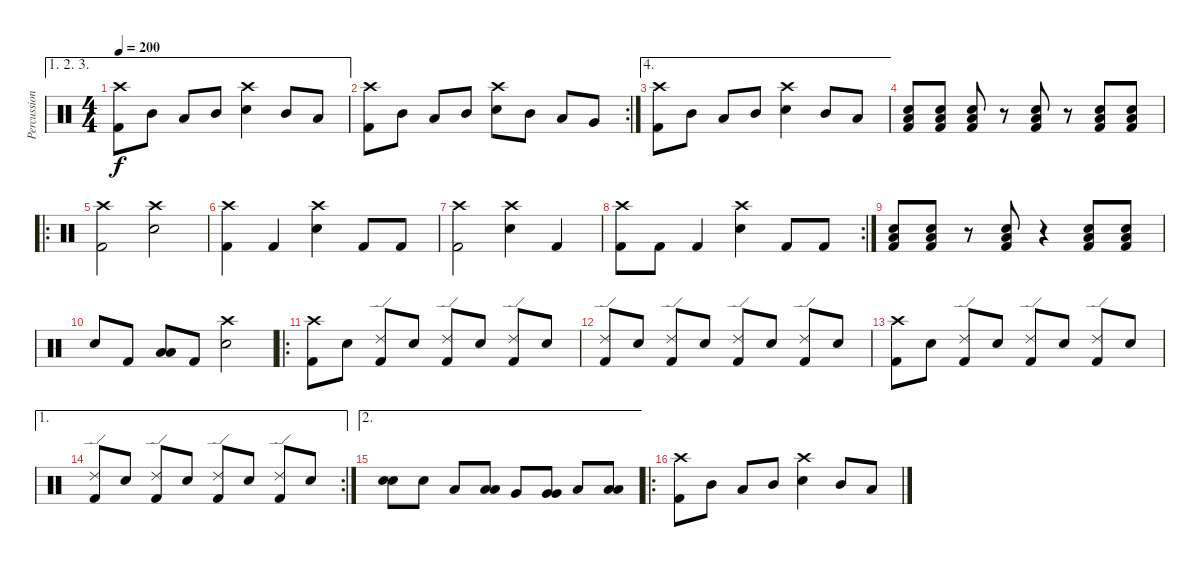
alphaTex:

\track ("Percussions" "Percussion") {instrument percussion}
\staff {score}
\articulation defaults
\ae (1 2 3)
\ts (4 4)
\tempo 200
\clef neutral
\ks c
("Crash high (hit)" "Kick (hit) 2").8{dy f} "Mid Tom (hit)".8 "Low Tom (hit)".8 "Mid Tom (hit)".8 ("Crash high (hit)" "Snare (hit) 2").4 "Mid Tom (hit)".8 "Low Tom (hit)".8 |
\rc 2
("Crash high (hit)" "Kick (hit) 2").8 "Mid Tom (hit)".8 "Low Tom (hit)".8 "Mid Tom (hit)".8 ("Crash high (hit)" "Snare (hit) 2").8 "Mid Tom (hit)".8 "Low Tom (hit)".8 "Very Low Tom (hit)".8 |
\ae 4
("Crash high (hit)" "Kick (hit) 2").8 "Mid Tom (hit)".8 "Low Tom (hit)".8 "Mid Tom (hit)".8 ("Crash high (hit)" "Snare (hit) 2").4 "Mid Tom (hit)".8 "Low Tom (hit)".8 |
("Low Floor Tom (hit)" "Snare (hit) 2" "Kick (hit) 2").8 ("Low Floor Tom (hit)" "Snare (hit) 2" "Kick (hit) 2").8 ("Low Floor Tom (hit)" "Snare (hit) 2" "Kick (hit) 2").8 r.8 ("Low Floor Tom (hit)" "Snare (hit) 2" "Kick (hit) 2").8 r.8 ("Low Floor Tom (hit)" "Snare (hit) 2" "Kick (hit) 2").8 ("Low Floor Tom (hit)" "Snare (hit) 2" "Kick (hit) 2").8 |
\ro
("Crash high (hit)" "Kick (hit) 2").2 ("Crash high (hit)" "Snare (hit) 2").2 |
("Crash high (hit)" "Kick (hit) 2").4 "Kick (hit) 2".4 ("Crash high (hit)" "Snare (hit) 2").4 "Kick (hit) 2".8 "Kick (hit) 2".8 |
("Crash high (hit)" "Kick (hit) 2").2 ("Crash high (hit)" "Snare (hit) 2").4 "Kick (hit) 2".4 |
\rc 2
("Crash high (hit)" "Kick (hit) 2").8 "Kick (hit) 2".8 "Kick (hit) 2".4 ("Crash high (hit)" "Snare (hit) 2").4 "Kick (hit) 2".8 "Kick (hit) 2".8 |
("Low Floor Tom (hit)" "Snare (hit) 2" "Kick (hit) 2").8 ("Low Floor Tom (hit)" "Snare (hit) 2" "Kick (hit) 2").8 r.8 ("Low Floor Tom (hit)" "Snare (hit) 2" "Kick (hit) 2").8 r.4 ("Low Floor Tom (hit)" "Snare (hit) 2" "Kick (hit) 2").8 ("Low Floor Tom (hit)" "Snare (hit) 2" "Kick (hit) 2").8 |
"Snare (hit) 2".8 "Kick (hit) 2".8 ("Low Tom (hit)" "Low Tom (hit)").8{bd 240} "Kick (hit) 2".8 ("Crash high (hit)" "Snare (hit) 2").2 |
\ro
("Crash high (hit)" "Kick (hit) 2").8 "Snare (hit) 2".8 ("Ride (edge) 2" "Kick (hit) 2").8 "Snare (hit) 2".8 ("Ride (edge) 2" "Kick (hit) 2").8 "Snare (hit) 2".8 ("Ride (edge) 2" "Kick (hit) 2").8 "Snare (hit) 2".8 |
("Ride (edge) 2" "Kick (hit) 2").8 "Snare (hit) 2".8 ("Ride (edge) 2" "Kick (hit) 2").8 "Snare (hit) 2".8 ("Ride (edge) 2" "Kick (hit) 2").8 "Snare (hit) 2".8 ("Ride (edge) 2" "Kick (hit) 2").8 "Snare (hit) 2".8 |
("Crash high (hit)" "Kick (hit) 2").8 "Snare (hit) 2".8 ("Ride (edge) 2" "Kick (hit) 2").8 "Snare (hit) 2".8 ("Ride (edge) 2" "Kick (hit) 2").8 "Snare (hit) 2".8 ("Ride (edge) 2" "Kick (hit) 2").8 "Snare (hit) 2".8 |
\ae 1
\rc 2
("Ride (edge) 2" "Kick (hit) 2").8 "Snare (hit) 2".8 ("Ride (edge) 2" "Kick (hit) 2").8 "Snare (hit) 2".8 ("Ride (edge) 2" "Kick (hit) 2").8 "Snare (hit) 2".8 ("Ride (edge) 2" "Kick (hit) 2").8 "Snare (hit) 2".8 |
\ae 2
("Snare (hit) 2" "Snare (hit) 2").8{bd 240} "Snare (hit) 2".8 "Low Tom (hit)".8 ("Low Tom (hit)" "Low Tom (hit)").8{bd 240} "Very Low Tom (hit)".8 ("Very Low Tom (hit)" "Very Low Tom (hit)").8{bd 240} "Low Floor Tom (hit)".8 ("Low Floor Tom (hit)" "Low Floor Tom (hit)").8{bd 240} |
\ro
("Crash high (hit)" "Kick (hit) 2").8 "Mid Tom (hit)".8 "Low Tom (hit)".8 "Mid Tom (hit)".8 ("Crash high (hit)" "Snare (hit) 2").4 "Mid Tom (hit)".8 "Low Tom (hit)".8
